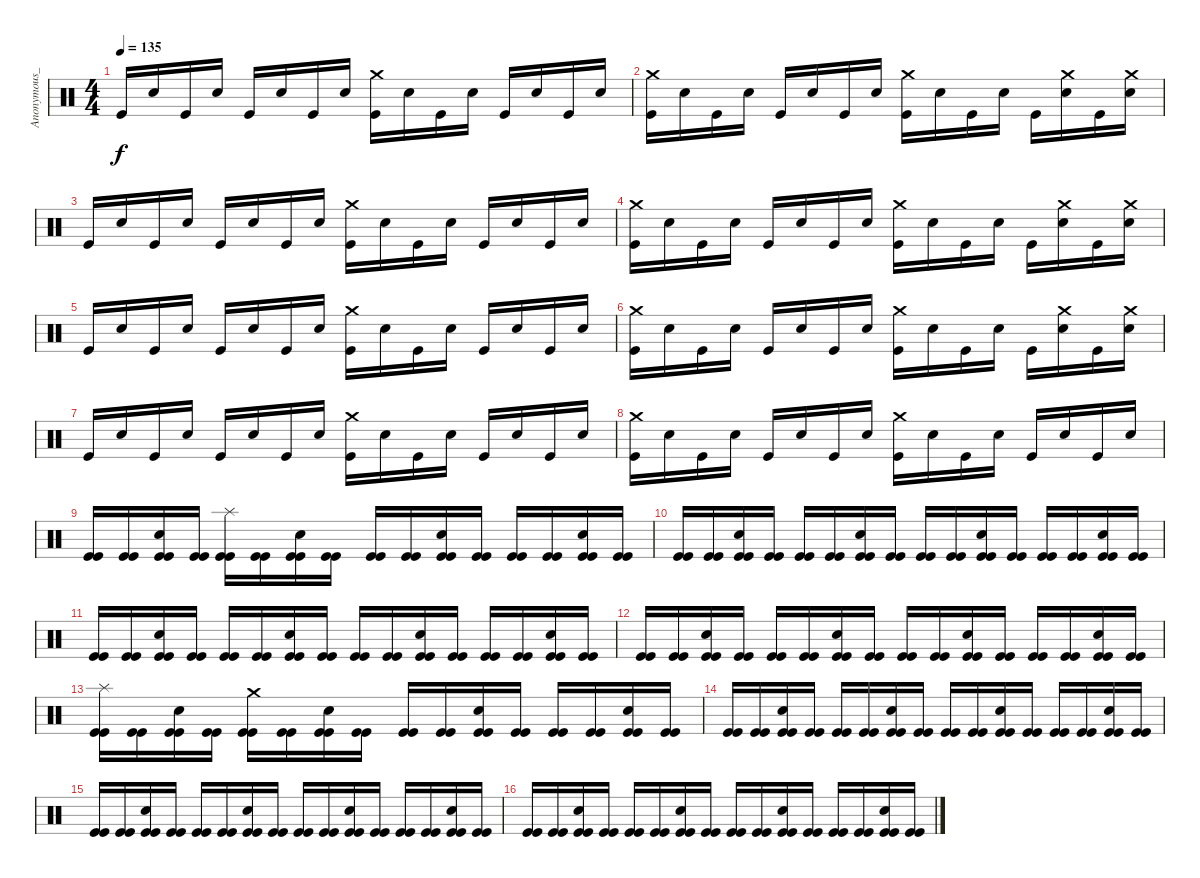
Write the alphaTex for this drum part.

\track ("Anonymous_Drums" "Anonymous_") {instrument percussion}
\staff {score}
\articulation defaults
\ts (4 4)
\tempo 135
\clef neutral
\ks c "Kick (hit)".16{dy f} "Snare (hit) 2".16 "Kick (hit)".16 "Snare (hit) 2".16 "Kick (hit)".16 "Snare (hit) 2".16 "Kick (hit)".16 "Snare (hit) 2".16
("Crash medium (hit)" "Kick (hit)").16 "Snare (hit) 2".16 "Kick (hit)".16 "Snare (hit) 2".16 "Kick (hit)".16 "Snare (hit) 2".16 "Kick (hit)".16 "Snare (hit) 2".16 |
("Crash medium (hit)" "Kick (hit)").16 "Snare (hit) 2".16 "Kick (hit)".16 "Snare (hit) 2".16 "Kick (hit)".16 "Snare (hit) 2".16 "Kick (hit)".16 "Snare (hit) 2".16 ("Crash medium (hit)" "Kick (hit)").16 "Snare (hit) 2".16 "Kick (hit)".16 "Snare (hit) 2".16 "Kick (hit)".16 ("Crash medium (hit)" "Snare (hit) 2").16 "Kick (hit)".16 ("Crash medium (hit)" "Snare (hit) 2").16 |
"Kick (hit)".16 "Snare (hit) 2".16 "Kick (hit)".16 "Snare (hit) 2".16 "Kick (hit)".16 "Snare (hit) 2".16 "Kick (hit)".16 "Snare (hit) 2".16 ("Crash medium (hit)" "Kick (hit)").16 "Snare (hit) 2".16 "Kick (hit)".16 "Snare (hit) 2".16 "Kick (hit)".16 "Snare (hit) 2".16 "Kick (hit)".16 "Snare (hit) 2".16 |
("Crash medium (hit)" "Kick (hit)").16 "Snare (hit) 2".16 "Kick (hit)".16 "Snare (hit) 2".16 "Kick (hit)".16 "Snare (hit) 2".16 "Kick (hit)".16 "Snare (hit) 2".16 ("Crash medium (hit)" "Kick (hit)").16 "Snare (hit) 2".16 "Kick (hit)".16 "Snare (hit) 2".16 "Kick (hit)".16 ("Crash medium (hit)" "Snare (hit) 2").16 "Kick (hit)".16 ("Crash medium (hit)" "Snare (hit) 2").16 |
"Kick (hit)".16 "Snare (hit) 2".16 "Kick (hit)".16 "Snare (hit) 2".16 "Kick (hit)".16 "Snare (hit) 2".16 "Kick (hit)".16 "Snare (hit) 2".16 ("Crash medium (hit)" "Kick (hit)").16 "Snare (hit) 2".16 "Kick (hit)".16 "Snare (hit) 2".16 "Kick (hit)".16 "Snare (hit) 2".16 "Kick (hit)".16 "Snare (hit) 2".16 |
("Crash medium (hit)" "Kick (hit)").16 "Snare (hit) 2".16 "Kick (hit)".16 "Snare (hit) 2".16 "Kick (hit)".16 "Snare (hit) 2".16 "Kick (hit)".16 "Snare (hit) 2".16 ("Crash medium (hit)" "Kick (hit)").16 "Snare (hit) 2".16 "Kick (hit)".16 "Snare (hit) 2".16 "Kick (hit)".16 ("Crash medium (hit)" "Snare (hit) 2").16 "Kick (hit)".16 ("Crash medium (hit)" "Snare (hit) 2").16 |
"Kick (hit)".16 "Snare (hit) 2".16 "Kick (hit)".16 "Snare (hit) 2".16 "Kick (hit)".16 "Snare (hit) 2".16 "Kick (hit)".16 "Snare (hit) 2".16 ("Crash medium (hit)" "Kick (hit)").16 "Snare (hit) 2".16 "Kick (hit)".16 "Snare (hit) 2".16 "Kick (hit)".16 "Snare (hit) 2".16 "Kick (hit)".16 "Snare (hit) 2".16 |
("Crash medium (hit)" "Kick (hit)").16 "Snare (hit) 2".16 "Kick (hit)".16 "Snare (hit) 2".16 "Kick (hit)".16 "Snare (hit) 2".16 "Kick (hit)".16 "Snare (hit) 2".16 ("Crash medium (hit)" "Kick (hit)").16 "Snare (hit) 2".16 "Kick (hit)".16 "Snare (hit) 2".16 "Kick (hit)".16 "Snare (hit) 2".16 "Kick (hit)".16 "Snare (hit) 2".16 |
("Kick (hit)" "Kick (hit)").16 ("Kick (hit)" "Kick (hit)").16 ("Snare (hit) 2" "Kick (hit)" "Kick (hit)").16 ("Kick (hit)" "Kick (hit)").16 ("Splash (hit)" "Kick (hit)" "Kick (hit)").16 ("Kick (hit)" "Kick (hit)").16 ("Snare (hit) 2" "Kick (hit)" "Kick (hit)").16 ("Kick (hit)" "Kick (hit)").16 ("Kick (hit)" "Kick (hit)").16 ("Kick (hit)" "Kick (hit)").16 ("Snare (hit) 2" "Kick (hit)" "Kick (hit)").16 ("Kick (hit)" "Kick (hit)").16 ("Kick (hit)" "Kick (hit)").16 ("Kick (hit)" "Kick (hit)").16 ("Snare (hit) 2" "Kick (hit)" "Kick (hit)").16 ("Kick (hit)" "Kick (hit)").16 |
("Kick (hit)" "Kick (hit)").16 ("Kick (hit)" "Kick (hit)").16 ("Snare (hit) 2" "Kick (hit)" "Kick (hit)").16 ("Kick (hit)" "Kick (hit)").16 ("Kick (hit)" "Kick (hit)").16 ("Kick (hit)" "Kick (hit)").16 ("Snare (hit) 2" "Kick (hit)" "Kick (hit)").16 ("Kick (hit)" "Kick (hit)").16 ("Kick (hit)" "Kick (hit)").16 ("Kick (hit)" "Kick (hit)").16 ("Snare (hit) 2" "Kick (hit)" "Kick (hit)").16 ("Kick (hit)" "Kick (hit)").16 ("Kick (hit)" "Kick (hit)").16 ("Kick (hit)" "Kick (hit)").16 ("Snare (hit) 2" "Kick (hit)" "Kick (hit)").16 ("Kick (hit)" "Kick (hit)").16 |
("Kick (hit)" "Kick (hit)").16 ("Kick (hit)" "Kick (hit)").16 ("Snare (hit) 2" "Kick (hit)" "Kick (hit)").16 ("Kick (hit)" "Kick (hit)").16 ("Kick (hit)" "Kick (hit)").16 ("Kick (hit)" "Kick (hit)").16 ("Snare (hit) 2" "Kick (hit)" "Kick (hit)").16 ("Kick (hit)" "Kick (hit)").16 ("Kick (hit)" "Kick (hit)").16 ("Kick (hit)" "Kick (hit)").16 ("Snare (hit) 2" "Kick (hit)" "Kick (hit)").16 ("Kick (hit)" "Kick (hit)").16 ("Kick (hit)" "Kick (hit)").16 ("Kick (hit)" "Kick (hit)").16 ("Snare (hit) 2" "Kick (hit)" "Kick (hit)").16 ("Kick (hit)" "Kick (hit)").16 |
("Kick (hit)" "Kick (hit)").16 ("Kick (hit)" "Kick (hit)").16 ("Snare (hit) 2" "Kick (hit)" "Kick (hit)").16 ("Kick (hit)" "Kick (hit)").16 ("Kick (hit)" "Kick (hit)").16 ("Kick (hit)" "Kick (hit)").16 ("Snare (hit) 2" "Kick (hit)" "Kick (hit)").16 ("Kick (hit)" "Kick (hit)").16 ("Kick (hit)" "Kick (hit)").16 ("Kick (hit)" "Kick (hit)").16 ("Snare (hit) 2" "Kick (hit)" "Kick (hit)").16 ("Kick (hit)" "Kick (hit)").16 ("Kick (hit)" "Kick (hit)").16 ("Kick (hit)" "Kick (hit)").16 ("Snare (hit) 2" "Kick (hit)" "Kick (hit)").16 ("Kick (hit)" "Kick (hit)").16 |
("Splash (hit)" "Kick (hit)" "Kick (hit)").16 ("Kick (hit)" "Kick (hit)").16 ("Snare (hit) 2" "Kick (hit)" "Kick (hit)").16 ("Kick (hit)" "Kick (hit)").16 ("Crash medium (hit)" "Kick (hit)" "Kick (hit)").16 ("Kick (hit)" "Kick (hit)").16 ("Snare (hit) 2" "Kick (hit)" "Kick (hit)").16 ("Kick (hit)" "Kick (hit)").16 ("Kick (hit)" "Kick (hit)").16 ("Kick (hit)" "Kick (hit)").16 ("Snare (hit) 2" "Kick (hit)" "Kick (hit)").16 ("Kick (hit)" "Kick (hit)").16 ("Kick (hit)" "Kick (hit)").16 ("Kick (hit)" "Kick (hit)").16 ("Snare (hit) 2" "Kick (hit)" "Kick (hit)").16 ("Kick (hit)" "Kick (hit)").16 |
("Kick (hit)" "Kick (hit)").16 ("Kick (hit)" "Kick (hit)").16 ("Snare (hit) 2" "Kick (hit)" "Kick (hit)").16 ("Kick (hit)" "Kick (hit)").16 ("Kick (hit)" "Kick (hit)").16 ("Kick (hit)" "Kick (hit)").16 ("Snare (hit) 2" "Kick (hit)" "Kick (hit)").16 ("Kick (hit)" "Kick (hit)").16 ("Kick (hit)" "Kick (hit)").16 ("Kick (hit)" "Kick (hit)").16 ("Snare (hit) 2" "Kick (hit)" "Kick (hit)").16 ("Kick (hit)" "Kick (hit)").16 ("Kick (hit)" "Kick (hit)").16 ("Kick (hit)" "Kick (hit)").16 ("Snare (hit) 2" "Kick (hit)" "Kick (hit)").16 ("Kick (hit)" "Kick (hit)").16 |
("Kick (hit)" "Kick (hit)").16 ("Kick (hit)" "Kick (hit)").16 ("Snare (hit) 2" "Kick (hit)" "Kick (hit)").16 ("Kick (hit)" "Kick (hit)").16 ("Kick (hit)" "Kick (hit)").16 ("Kick (hit)" "Kick (hit)").16 ("Snare (hit) 2" "Kick (hit)" "Kick (hit)").16 ("Kick (hit)" "Kick (hit)").16 ("Kick (hit)" "Kick (hit)").16 ("Kick (hit)" "Kick (hit)").16 ("Snare (hit) 2" "Kick (hit)" "Kick (hit)").16 ("Kick (hit)" "Kick (hit)").16 ("Kick (hit)" "Kick (hit)").16 ("Kick (hit)" "Kick (hit)").16 ("Snare (hit) 2" "Kick (hit)" "Kick (hit)").16 ("Kick (hit)" "Kick (hit)").16 |
("Kick (hit)" "Kick (hit)").16 ("Kick (hit)" "Kick (hit)").16 ("Snare (hit) 2" "Kick (hit)" "Kick (hit)").16 ("Kick (hit)" "Kick (hit)").16 ("Kick (hit)" "Kick (hit)").16 ("Kick (hit)" "Kick (hit)").16 ("Snare (hit) 2" "Kick (hit)" "Kick (hit)").16 ("Kick (hit)" "Kick (hit)").16 ("Kick (hit)" "Kick (hit)").16 ("Kick (hit)" "Kick (hit)").16 ("Snare (hit) 2" "Kick (hit)" "Kick (hit)").16 ("Kick (hit)" "Kick (hit)").16 ("Kick (hit)" "Kick (hit)").16 ("Kick (hit)" "Kick (hit)").16 ("Snare (hit) 2" "Kick (hit)" "Kick (hit)").16 ("Kick (hit)" "Kick (hit)").16
